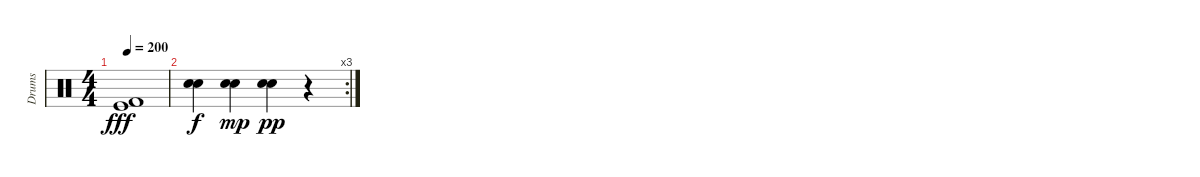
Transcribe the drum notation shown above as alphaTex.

\track ("Drums" "Drums") {instrument percussion}
\staff {score}
\articulation defaults
\ts (4 4)
\tempo 200
\clef neutral
\ks c
("Kick (hit)" "Kick (hit) 2").1{dy fff} |
\rc 3
("Electric Snare (hit)" "Electric Snare (hit)").4{dy f} ("Electric Snare (hit)" "Electric Snare (hit)").4{dy mp} ("Electric Snare (hit)" "Electric Snare (hit)").4{dy pp} r.4
